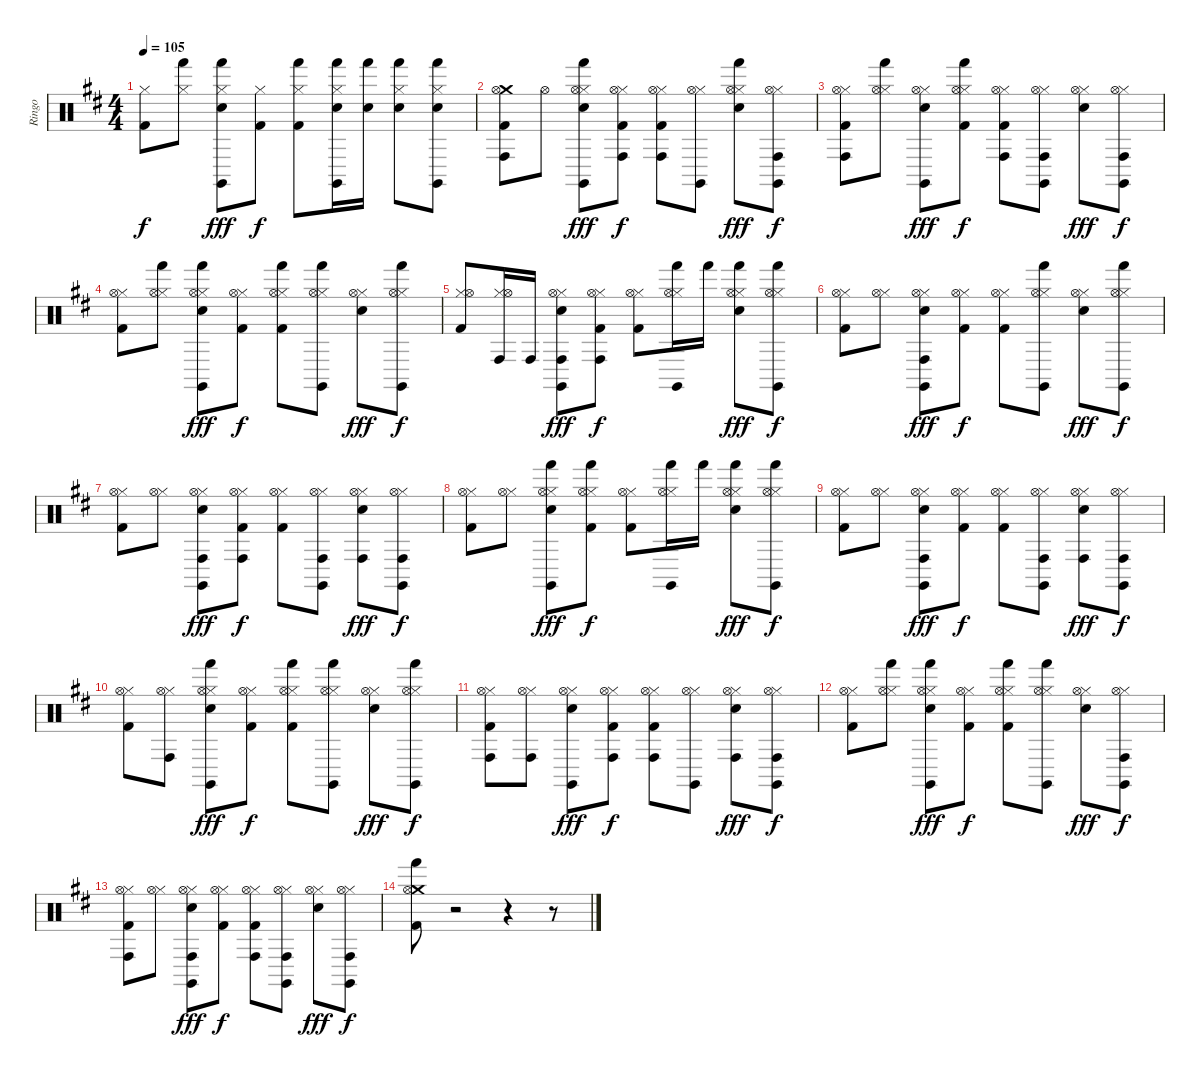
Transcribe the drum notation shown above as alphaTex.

\track ("Ringo" "Ringo") {solo instrument percussion}
\staff {score}
\articulation defaults
\ts (4 4)
\tempo 105
\clef neutral
\ks d
("Hi-Hat (closed)" "Kick (hit) 2").8{dy f} ("Hi-Hat (closed)" "Hand (hit)").8 ("Hi-Hat (closed)" "Claves (hit)" "Hand (hit)" "Snare (hit) 2").8{dy fff} ("Kick (hit) 2" "Hi-Hat (closed)").8{dy f} ("Hi-Hat (closed)" "Hand (hit)" "Kick (hit) 2").8 ("Hand (hit)" "Claves (hit)" "Snare (hit) 2" "Hi-Hat (closed)").16 ("Snare (hit) 2" "Hand (hit)").16 ("Hi-Hat (closed)" "Snare (hit) 2" "Hand (hit)").8 ("Hand (hit)" "Hi-Hat (closed)" "Claves (hit)" "Snare (hit) 2").8 |
("Kick (hit) 2" "Crash medium (hit)" "Conga high (hit)" "Hi-Hat (open)").8 "Hi-Hat (open)".8 ("Hand (hit)" "Snare (hit) 2" "Claves (hit)" "Hi-Hat (closed)" "Hi-Hat (open)").8{dy fff} ("Hi-Hat (closed)" "Kick (hit) 2" "Conga high (hit)" "Hi-Hat (open)").8{dy f} ("Conga high (hit)" "Hi-Hat (closed)" "Kick (hit) 2" "Hi-Hat (open)").8 ("Claves (hit)" "Hi-Hat (closed)" "Hi-Hat (open)").8 ("Snare (hit) 2" "Hand (hit)" "Hi-Hat (closed)" "Hi-Hat (open)").8{dy fff} ("Claves (hit)" "Conga high (hit)" "Hi-Hat (closed)" "Hi-Hat (open)").8{dy f} |
("Conga high (hit)" "Kick (hit) 2" "Hi-Hat (closed)" "Hi-Hat (open)").8 ("Hi-Hat (closed)" "Hand (hit)" "Hi-Hat (open)").8 ("Claves (hit)" "Snare (hit) 2" "Hi-Hat (closed)" "Hi-Hat (open)").8{dy fff} ("Hi-Hat (closed)" "Kick (hit) 2" "Hand (hit)" "Hi-Hat (open)").8{dy f} ("Conga high (hit)" "Kick (hit) 2" "Hi-Hat (closed)" "Hi-Hat (open)").8 ("Claves (hit)" "Conga high (hit)" "Hi-Hat (closed)" "Hi-Hat (open)").8 ("Hi-Hat (closed)" "Snare (hit) 2" "Hi-Hat (open)").8{dy fff} ("Conga high (hit)" "Hi-Hat (closed)" "Claves (hit)" "Hi-Hat (open)").8{dy f} |
("Kick (hit) 2" "Hi-Hat (closed)" "Hi-Hat (open)").8 ("Hi-Hat (closed)" "Hand (hit)" "Hi-Hat (open)").8 ("Hand (hit)" "Hi-Hat (closed)" "Claves (hit)" "Snare (hit) 2" "Hi-Hat (open)").8{dy fff} ("Kick (hit) 2" "Hi-Hat (closed)" "Hi-Hat (open)").8{dy f} ("Kick (hit) 2" "Hand (hit)" "Hi-Hat (closed)" "Hi-Hat (open)").8 ("Hi-Hat (closed)" "Claves (hit)" "Hand (hit)" "Hi-Hat (open)").8 ("Hi-Hat (closed)" "Snare (hit) 2" "Hi-Hat (open)").8{dy fff} ("Hand (hit)" "Hi-Hat (closed)" "Claves (hit)" "Hi-Hat (open)").8{dy f} |
("Kick (hit) 2" "Hi-Hat (closed)" "Hi-Hat (open)").8 ("Conga high (hit)" "Hi-Hat (closed)" "Hi-Hat (open)").16 "Conga high (hit)".16 ("Claves (hit)" "Snare (hit) 2" "Hi-Hat (closed)" "Conga high (hit)" "Hi-Hat (open)").8{dy fff} ("Hi-Hat (closed)" "Conga high (hit)" "Kick (hit) 2" "Hi-Hat (open)").8{dy f} ("Kick (hit) 2" "Hi-Hat (closed)" "Hi-Hat (open)").8 ("Claves (hit)" "Hand (hit)" "Hi-Hat (closed)" "Hi-Hat (open)").16 "Hand (hit)".16 ("Hi-Hat (closed)" "Snare (hit) 2" "Hand (hit)" "Hi-Hat (open)").8{dy fff} ("Hi-Hat (closed)" "Claves (hit)" "Hand (hit)" "Hi-Hat (open)").8{dy f} |
("Hi-Hat (closed)" "Kick (hit) 2" "Hi-Hat (open)").8 ("Hi-Hat (closed)" "Hi-Hat (open)").8 ("Snare (hit) 2" "Conga high (hit)" "Hi-Hat (closed)" "Claves (hit)" "Hi-Hat (open)").8{dy fff} ("Kick (hit) 2" "Hi-Hat (closed)" "Hi-Hat (open)").8{dy f} ("Hi-Hat (closed)" "Kick (hit) 2" "Hi-Hat (open)").8 ("Claves (hit)" "Hi-Hat (closed)" "Hand (hit)" "Hi-Hat (open)").8 ("Hi-Hat (closed)" "Snare (hit) 2" "Hi-Hat (open)").8{dy fff} ("Hand (hit)" "Hi-Hat (closed)" "Claves (hit)" "Hi-Hat (open)").8{dy f} |
("Hi-Hat (closed)" "Kick (hit) 2" "Hi-Hat (open)").8 ("Hi-Hat (closed)" "Hi-Hat (open)").8 ("Conga high (hit)" "Claves (hit)" "Hi-Hat (closed)" "Snare (hit) 2" "Hi-Hat (open)").8{dy fff} ("Kick (hit) 2" "Conga high (hit)" "Hi-Hat (closed)" "Hi-Hat (open)").8{dy f} ("Kick (hit) 2" "Hi-Hat (closed)" "Hi-Hat (open)").8 ("Hi-Hat (closed)" "Conga high (hit)" "Claves (hit)" "Hi-Hat (open)").8 ("Snare (hit) 2" "Conga high (hit)" "Hi-Hat (closed)" "Hi-Hat (open)").8{dy fff} ("Claves (hit)" "Conga high (hit)" "Hi-Hat (closed)" "Hi-Hat (open)").8{dy f} |
("Kick (hit) 2" "Hi-Hat (closed)" "Hi-Hat (open)").8 ("Hi-Hat (closed)" "Hi-Hat (open)").8 ("Hand (hit)" "Claves (hit)" "Snare (hit) 2" "Hi-Hat (closed)" "Hi-Hat (open)").8{dy fff} ("Hi-Hat (closed)" "Kick (hit) 2" "Hand (hit)" "Hi-Hat (open)").8{dy f} ("Kick (hit) 2" "Hi-Hat (closed)" "Hi-Hat (open)").8 ("Claves (hit)" "Hi-Hat (closed)" "Hand (hit)" "Hi-Hat (open)").16 "Hand (hit)".16 ("Hand (hit)" "Hi-Hat (closed)" "Snare (hit) 2" "Hi-Hat (open)").8{dy fff} ("Hand (hit)" "Hi-Hat (closed)" "Claves (hit)" "Hi-Hat (open)").8{dy f} |
("Kick (hit) 2" "Hi-Hat (closed)" "Hi-Hat (open)").8 ("Hi-Hat (closed)" "Hi-Hat (open)").8 ("Conga high (hit)" "Snare (hit) 2" "Hi-Hat (closed)" "Claves (hit)" "Hi-Hat (open)").8{dy fff} ("Kick (hit) 2" "Hi-Hat (closed)" "Hi-Hat (open)").8{dy f} ("Kick (hit) 2" "Hi-Hat (closed)" "Hi-Hat (open)").8 ("Claves (hit)" "Hi-Hat (closed)" "Conga high (hit)" "Hi-Hat (open)").8 ("Conga high (hit)" "Hi-Hat (closed)" "Snare (hit) 2" "Hi-Hat (open)").8{dy fff} ("Claves (hit)" "Conga high (hit)" "Hi-Hat (closed)" "Hi-Hat (open)").8{dy f} |
("Kick (hit) 2" "Hi-Hat (closed)" "Hi-Hat (open)").8 ("Hi-Hat (closed)" "Conga high (hit)" "Hi-Hat (open)").8 ("Hand (hit)" "Hi-Hat (closed)" "Claves (hit)" "Snare (hit) 2" "Hi-Hat (open)").8{dy fff} ("Hi-Hat (closed)" "Kick (hit) 2" "Hi-Hat (open)").8{dy f} ("Hi-Hat (closed)" "Kick (hit) 2" "Hand (hit)" "Hi-Hat (open)").8 ("Hi-Hat (closed)" "Hand (hit)" "Claves (hit)" "Hi-Hat (open)").8 ("Hi-Hat (closed)" "Snare (hit) 2" "Hi-Hat (open)").8{dy fff} ("Claves (hit)" "Hi-Hat (closed)" "Hand (hit)" "Hi-Hat (open)").8{dy f} |
("Conga high (hit)" "Kick (hit) 2" "Hi-Hat (closed)" "Hi-Hat (open)").8 ("Conga high (hit)" "Hi-Hat (closed)" "Hi-Hat (open)").8 ("Claves (hit)" "Snare (hit) 2" "Hi-Hat (closed)" "Hi-Hat (open)").8{dy fff} ("Hi-Hat (closed)" "Kick (hit) 2" "Conga high (hit)" "Hi-Hat (open)").8{dy f} ("Kick (hit) 2" "Conga high (hit)" "Hi-Hat (closed)" "Hi-Hat (open)").8 ("Claves (hit)" "Hi-Hat (closed)" "Hi-Hat (open)").8 ("Snare (hit) 2" "Hi-Hat (closed)" "Conga high (hit)" "Hi-Hat (open)").8{dy fff} ("Conga high (hit)" "Hi-Hat (closed)" "Claves (hit)" "Hi-Hat (open)").8{dy f} |
("Hi-Hat (closed)" "Kick (hit) 2" "Hi-Hat (open)").8 ("Hi-Hat (closed)" "Hand (hit)" "Hi-Hat (open)").8 ("Hand (hit)" "Claves (hit)" "Snare (hit) 2" "Hi-Hat (closed)" "Hi-Hat (open)").8{dy fff} ("Hi-Hat (closed)" "Kick (hit) 2" "Hi-Hat (open)").8{dy f} ("Hi-Hat (closed)" "Hand (hit)" "Kick (hit) 2" "Hi-Hat (open)").8 ("Claves (hit)" "Hi-Hat (closed)" "Hand (hit)" "Hi-Hat (open)").8 ("Hi-Hat (closed)" "Snare (hit) 2" "Hi-Hat (open)").8{dy fff} ("Conga high (hit)" "Claves (hit)" "Hi-Hat (closed)" "Hi-Hat (open)").8{dy f} |
("Hi-Hat (closed)" "Conga high (hit)" "Kick (hit) 2" "Hi-Hat (open)").8 ("Hi-Hat (closed)" "Hi-Hat (open)").8 ("Conga high (hit)" "Snare (hit) 2" "Hi-Hat (closed)" "Claves (hit)" "Hi-Hat (open)").8{dy fff} ("Kick (hit) 2" "Hi-Hat (closed)" "Hi-Hat (open)").8{dy f} ("Kick (hit) 2" "Conga high (hit)" "Hi-Hat (closed)" "Hi-Hat (open)").8 ("Claves (hit)" "Hi-Hat (closed)" "Conga high (hit)" "Hi-Hat (open)").8 ("Snare (hit) 2" "Hi-Hat (closed)" "Hi-Hat (open)").8{dy fff} ("Hi-Hat (closed)" "Conga high (hit)" "Claves (hit)" "Hi-Hat (open)").8{dy f} |
("Crash medium (hit)" "Kick (hit) 2" "Hand (hit)" "Hi-Hat (open)").8 r.2 r.4 r.8
